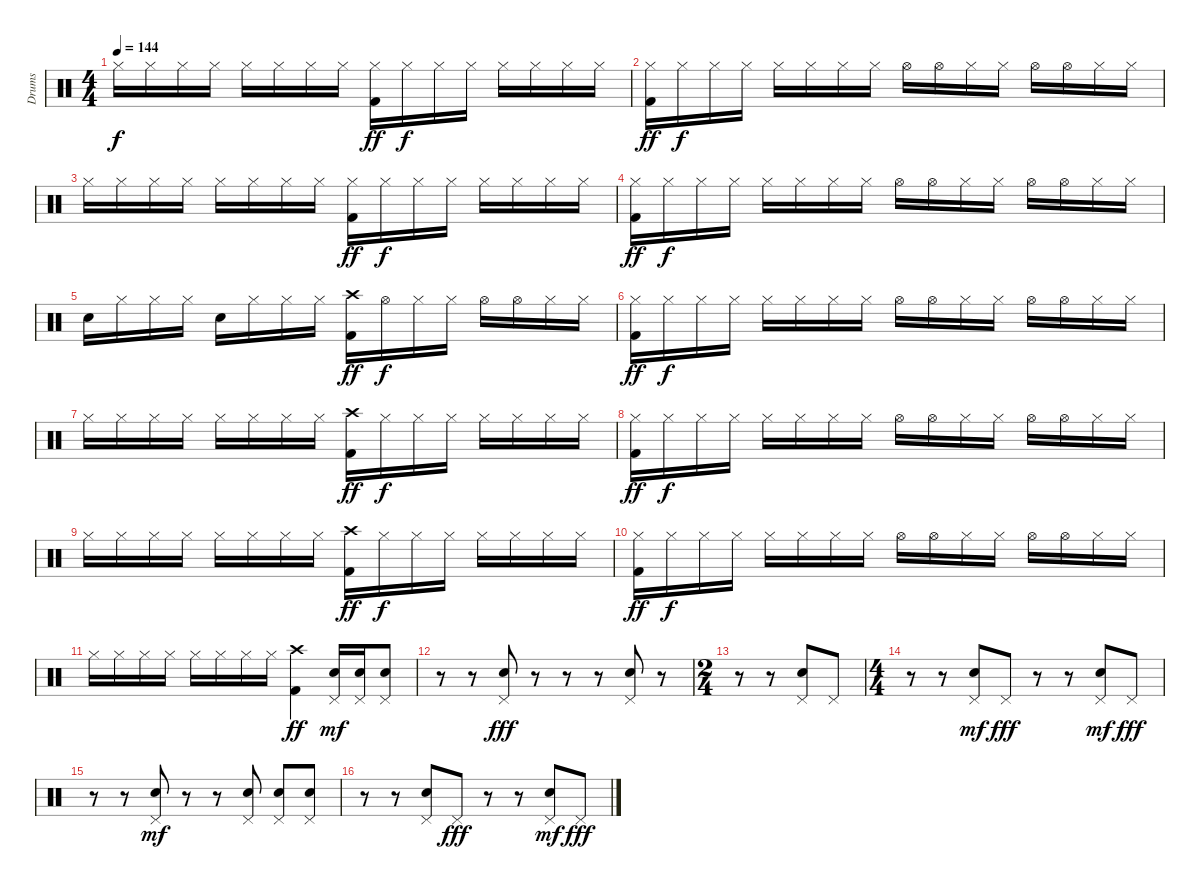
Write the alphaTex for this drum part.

\track ("Drums" "Drums") {instrument percussion}
\staff {score}
\articulation defaults
\ts (4 4)
\tempo 144
\clef neutral
\ks c "Hi-Hat (closed)".16{dy f} "Hi-Hat (closed)".16 "Hi-Hat (closed)".16 "Hi-Hat (closed)".16 "Hi-Hat (closed)".16 "Hi-Hat (closed)".16 "Hi-Hat (closed)".16 "Hi-Hat (closed)".16
("Hi-Hat (closed)" "Kick (hit) 2").16{dy ff} "Hi-Hat (closed)".16{dy f} "Hi-Hat (closed)".16 "Hi-Hat (closed)".16 "Hi-Hat (closed)".16 "Hi-Hat (closed)".16 "Hi-Hat (closed)".16 "Hi-Hat (closed)".16 |
("Hi-Hat (closed)" "Kick (hit) 2").16{dy ff} "Hi-Hat (closed)".16{dy f} "Hi-Hat (closed)".16 "Hi-Hat (closed)".16 "Hi-Hat (closed)".16 "Hi-Hat (closed)".16 "Hi-Hat (closed)".16 "Hi-Hat (closed)".16 "Hi-Hat (open)".16 "Hi-Hat (open)".16 "Hi-Hat (closed)".16 "Hi-Hat (closed)".16 "Hi-Hat (open)".16 "Hi-Hat (open)".16 "Hi-Hat (closed)".16 "Hi-Hat (closed)".16 |
"Hi-Hat (closed)".16 "Hi-Hat (closed)".16 "Hi-Hat (closed)".16 "Hi-Hat (closed)".16 "Hi-Hat (closed)".16 "Hi-Hat (closed)".16 "Hi-Hat (closed)".16 "Hi-Hat (closed)".16 ("Hi-Hat (closed)" "Kick (hit) 2").16{dy ff} "Hi-Hat (closed)".16{dy f} "Hi-Hat (closed)".16 "Hi-Hat (closed)".16 "Hi-Hat (closed)".16 "Hi-Hat (closed)".16 "Hi-Hat (closed)".16 "Hi-Hat (closed)".16 |
("Hi-Hat (closed)" "Kick (hit) 2").16{dy ff} "Hi-Hat (closed)".16{dy f} "Hi-Hat (closed)".16 "Hi-Hat (closed)".16 "Hi-Hat (closed)".16 "Hi-Hat (closed)".16 "Hi-Hat (closed)".16 "Hi-Hat (closed)".16 "Hi-Hat (open)".16 "Hi-Hat (open)".16 "Hi-Hat (closed)".16 "Hi-Hat (closed)".16 "Hi-Hat (open)".16 "Hi-Hat (open)".16 "Hi-Hat (closed)".16 "Hi-Hat (closed)".16 |
"Snare (hit) 2".16 "Hi-Hat (closed)".16 "Hi-Hat (closed)".16 "Hi-Hat (closed)".16 "Snare (hit) 2".16 "Hi-Hat (closed)".16 "Hi-Hat (closed)".16 "Hi-Hat (closed)".16 ("Crash high (hit)" "Kick (hit) 2").16{dy ff} "Hi-Hat (open)".16{dy f} "Hi-Hat (closed)".16 "Hi-Hat (closed)".16 "Hi-Hat (open)".16 "Hi-Hat (open)".16 "Hi-Hat (closed)".16 "Hi-Hat (closed)".16 |
("Hi-Hat (closed)" "Kick (hit) 2").16{dy ff} "Hi-Hat (closed)".16{dy f} "Hi-Hat (closed)".16 "Hi-Hat (closed)".16 "Hi-Hat (closed)".16 "Hi-Hat (closed)".16 "Hi-Hat (closed)".16 "Hi-Hat (closed)".16 "Hi-Hat (open)".16 "Hi-Hat (open)".16 "Hi-Hat (closed)".16 "Hi-Hat (closed)".16 "Hi-Hat (open)".16 "Hi-Hat (open)".16 "Hi-Hat (closed)".16 "Hi-Hat (closed)".16 |
"Hi-Hat (closed)".16 "Hi-Hat (closed)".16 "Hi-Hat (closed)".16 "Hi-Hat (closed)".16 "Hi-Hat (closed)".16 "Hi-Hat (closed)".16 "Hi-Hat (closed)".16 "Hi-Hat (closed)".16 ("Crash high (hit)" "Kick (hit) 2").16{dy ff} "Hi-Hat (closed)".16{dy f} "Hi-Hat (closed)".16 "Hi-Hat (closed)".16 "Hi-Hat (closed)".16 "Hi-Hat (closed)".16 "Hi-Hat (closed)".16 "Hi-Hat (closed)".16 |
("Hi-Hat (closed)" "Kick (hit) 2").16{dy ff} "Hi-Hat (closed)".16{dy f} "Hi-Hat (closed)".16 "Hi-Hat (closed)".16 "Hi-Hat (closed)".16 "Hi-Hat (closed)".16 "Hi-Hat (closed)".16 "Hi-Hat (closed)".16 "Hi-Hat (open)".16 "Hi-Hat (open)".16 "Hi-Hat (closed)".16 "Hi-Hat (closed)".16 "Hi-Hat (open)".16 "Hi-Hat (open)".16 "Hi-Hat (closed)".16 "Hi-Hat (closed)".16 |
"Hi-Hat (closed)".16 "Hi-Hat (closed)".16 "Hi-Hat (closed)".16 "Hi-Hat (closed)".16 "Hi-Hat (closed)".16 "Hi-Hat (closed)".16 "Hi-Hat (closed)".16 "Hi-Hat (closed)".16 ("Crash high (hit)" "Kick (hit) 2").16{dy ff} "Hi-Hat (closed)".16{dy f} "Hi-Hat (closed)".16 "Hi-Hat (closed)".16 "Hi-Hat (closed)".16 "Hi-Hat (closed)".16 "Hi-Hat (closed)".16 "Hi-Hat (closed)".16 |
("Hi-Hat (closed)" "Kick (hit) 2").16{dy ff} "Hi-Hat (closed)".16{dy f} "Hi-Hat (closed)".16 "Hi-Hat (closed)".16 "Hi-Hat (closed)".16 "Hi-Hat (closed)".16 "Hi-Hat (closed)".16 "Hi-Hat (closed)".16 "Hi-Hat (open)".16 "Hi-Hat (open)".16 "Hi-Hat (closed)".16 "Hi-Hat (closed)".16 "Hi-Hat (open)".16 "Hi-Hat (open)".16 "Hi-Hat (closed)".16 "Hi-Hat (closed)".16 |
"Hi-Hat (closed)".16 "Hi-Hat (closed)".16 "Hi-Hat (closed)".16 "Hi-Hat (closed)".16 "Hi-Hat (closed)".16 "Hi-Hat (closed)".16 "Hi-Hat (closed)".16 "Hi-Hat (closed)".16 ("Crash high (hit)" "Kick (hit) 2").4{dy ff} ("Pedal Hi-Hat (hit)" "Snare (hit) 2").16{dy mf} ("Pedal Hi-Hat (hit)" "Snare (hit) 2").16 ("Pedal Hi-Hat (hit)" "Snare (hit) 2").8 |
r.8 r.8 ("Pedal Hi-Hat (hit)" "Snare (hit) 2").8{dy fff} r.8 r.8 r.8 ("Pedal Hi-Hat (hit)" "Snare (hit) 2").8 r.8 |
\ts (2 4)
r.8 r.8 ("Pedal Hi-Hat (hit)" "Snare (hit) 2").8 "Pedal Hi-Hat (hit)".8 |
\ts (4 4)
r.8 r.8 ("Pedal Hi-Hat (hit)" "Snare (hit) 2").8{dy mf} "Pedal Hi-Hat (hit)".8{dy fff} r.8 r.8 ("Pedal Hi-Hat (hit)" "Snare (hit) 2").8{dy mf} "Pedal Hi-Hat (hit)".8{dy fff} |
r.8 r.8 ("Pedal Hi-Hat (hit)" "Snare (hit) 2").8{dy mf} r.8 r.8 ("Pedal Hi-Hat (hit)" "Snare (hit) 2").8 ("Pedal Hi-Hat (hit)" "Snare (hit) 2").8 ("Pedal Hi-Hat (hit)" "Snare (hit) 2").8 |
r.8 r.8 ("Pedal Hi-Hat (hit)" "Snare (hit) 2").8 "Pedal Hi-Hat (hit)".8{dy fff} r.8 r.8 ("Pedal Hi-Hat (hit)" "Snare (hit) 2").8{dy mf} "Pedal Hi-Hat (hit)".8{dy fff}
